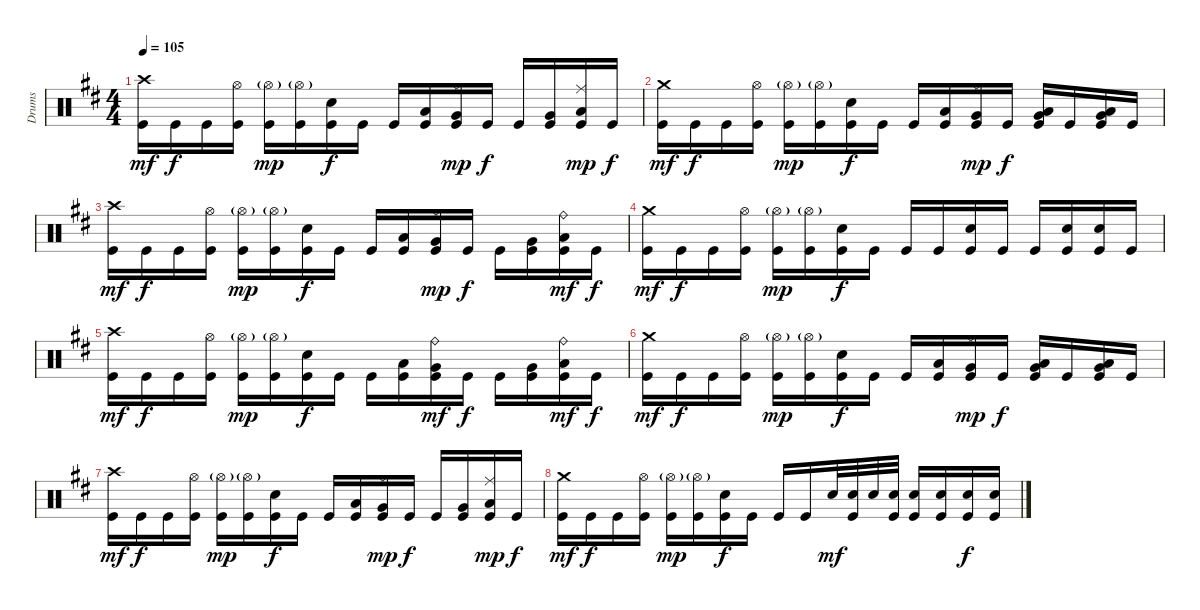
\track ("Drums" "Drums") {instrument percussion}
\staff {score}
\articulation defaults
\ts (4 4)
\tempo 105
\clef neutral
\ks d
("Crash high (hit)" "Kick (hit)").16{dy mf} "Kick (hit)".16{dy f} "Kick (hit)".16 ("Hi-Hat (open)" "Kick (hit)").16 ("Hi-Hat (open)"{g} "Kick (hit)").16{dy mp} ("Hi-Hat (open)"{g} "Kick (hit)").16 ("Electric Snare (hit)" "Kick (hit)").16{dy f} "Kick (hit)".16 "Kick (hit)".16 ("Low Tom (hit)" "Kick (hit)").16 ("Ride (middle)" "Very Low Tom (hit)" "Kick (hit)").16{dy mp} "Kick (hit)".16{dy f} "Kick (hit)".16 ("Very Low Tom (hit)" "Kick (hit)").16 ("Ride (middle)" "Low Floor Tom (hit)" "Kick (hit)").16{dy mp} "Kick (hit)".16{dy f} |
("Crash medium (hit)" "Kick (hit)").16{dy mf} "Kick (hit)".16{dy f} "Kick (hit)".16 ("Hi-Hat (open)" "Kick (hit)").16 ("Hi-Hat (open)"{g} "Kick (hit)").16{dy mp} ("Hi-Hat (open)"{g} "Kick (hit)").16 ("Electric Snare (hit)" "Kick (hit)").16{dy f} "Kick (hit)".16 "Kick (hit)".16 ("Low Tom (hit)" "Kick (hit)").16 ("Ride (middle)" "Very Low Tom (hit)" "Kick (hit)").16{dy mp} "Kick (hit)".16{dy f} ("Very Low Tom (hit)" "Low Floor Tom (hit)" "Kick (hit)").16 "Kick (hit)".16 ("Very Low Tom (hit)" "Low Floor Tom (hit)" "Kick (hit)").16 "Kick (hit)".16 |
("Crash high (hit)" "Kick (hit)").16{dy mf} "Kick (hit)".16{dy f} "Kick (hit)".16 ("Hi-Hat (open)" "Kick (hit)").16 ("Hi-Hat (open)"{g} "Kick (hit)").16{dy mp} ("Hi-Hat (open)"{g} "Kick (hit)").16 ("Electric Snare (hit)" "Kick (hit)").16{dy f} "Kick (hit)".16 "Kick (hit)".16 ("Low Tom (hit)" "Kick (hit)").16 ("Ride (middle)" "Very Low Tom (hit)" "Kick (hit)").16{dy mp} "Kick (hit)".16{dy f} "Kick (hit)".16 ("Very Low Tom (hit)" "Kick (hit)").16 ("Ride (bell)" "Low Floor Tom (hit)" "Kick (hit)").16{dy mf} "Kick (hit)".16{dy f} |
("Crash medium (hit)" "Kick (hit)").16{dy mf} "Kick (hit)".16{dy f} "Kick (hit)".16 ("Hi-Hat (open)" "Kick (hit)").16 ("Hi-Hat (open)"{g} "Kick (hit)").16{dy mp} ("Hi-Hat (open)"{g} "Kick (hit)").16 ("Electric Snare (hit)" "Kick (hit)").16{dy f} "Kick (hit)".16 "Kick (hit)".16 "Kick (hit)".16 ("Electric Snare (hit)" "Kick (hit)").16 "Kick (hit)".16 "Kick (hit)".16 ("Electric Snare (hit)" "Kick (hit)").16 ("Electric Snare (hit)" "Kick (hit)").16 "Kick (hit)".16 |
("Crash high (hit)" "Kick (hit)").16{dy mf} "Kick (hit)".16{dy f} "Kick (hit)".16 ("Hi-Hat (open)" "Kick (hit)").16 ("Hi-Hat (open)"{g} "Kick (hit)").16{dy mp} ("Hi-Hat (open)"{g} "Kick (hit)").16 ("Electric Snare (hit)" "Kick (hit)").16{dy f} "Kick (hit)".16 "Kick (hit)".16 ("Low Tom (hit)" "Kick (hit)").16 ("Ride (bell)" "Very Low Tom (hit)" "Kick (hit)").16{dy mf} "Kick (hit)".16{dy f} "Kick (hit)".16 ("Very Low Tom (hit)" "Kick (hit)").16 ("Ride (bell)" "Low Floor Tom (hit)" "Kick (hit)").16{dy mf} "Kick (hit)".16{dy f} |
("Crash medium (hit)" "Kick (hit)").16{dy mf} "Kick (hit)".16{dy f} "Kick (hit)".16 ("Hi-Hat (open)" "Kick (hit)").16 ("Hi-Hat (open)"{g} "Kick (hit)").16{dy mp} ("Hi-Hat (open)"{g} "Kick (hit)").16 ("Electric Snare (hit)" "Kick (hit)").16{dy f} "Kick (hit)".16 "Kick (hit)".16 ("Low Tom (hit)" "Kick (hit)").16 ("Ride (middle)" "Very Low Tom (hit)" "Kick (hit)").16{dy mp} "Kick (hit)".16{dy f} ("Very Low Tom (hit)" "Low Floor Tom (hit)" "Kick (hit)").16 "Kick (hit)".16 ("Very Low Tom (hit)" "Low Floor Tom (hit)" "Kick (hit)").16 "Kick (hit)".16 |
("Crash high (hit)" "Kick (hit)").16{dy mf} "Kick (hit)".16{dy f} "Kick (hit)".16 ("Hi-Hat (open)" "Kick (hit)").16 ("Hi-Hat (open)"{g} "Kick (hit)").16{dy mp} ("Hi-Hat (open)"{g} "Kick (hit)").16 ("Electric Snare (hit)" "Kick (hit)").16{dy f} "Kick (hit)".16 "Kick (hit)".16 ("Low Tom (hit)" "Kick (hit)").16 ("Ride (middle)" "Very Low Tom (hit)" "Kick (hit)").16{dy mp} "Kick (hit)".16{dy f} "Kick (hit)".16 ("Very Low Tom (hit)" "Kick (hit)").16 ("Ride (middle)" "Low Floor Tom (hit)" "Kick (hit)").16{dy mp} "Kick (hit)".16{dy f} |
("Crash medium (hit)" "Kick (hit)").16{dy mf} "Kick (hit)".16{dy f} "Kick (hit)".16 ("Hi-Hat (open)" "Kick (hit)").16 ("Hi-Hat (open)"{g} "Kick (hit)").16{dy mp} ("Hi-Hat (open)"{g} "Kick (hit)").16 ("Electric Snare (hit)" "Kick (hit)").16{dy f} "Kick (hit)".16 "Kick (hit)".16 "Kick (hit)".16 "Electric Snare (hit)".32{dy mf} ("Electric Snare (hit)" "Kick (hit)").32 "Electric Snare (hit)".32 ("Electric Snare (hit)" "Kick (hit)").32 ("Electric Snare (hit)" "Kick (hit)").16 ("Electric Snare (hit)" "Kick (hit)").16 ("Electric Snare (hit)" "Kick (hit)").16{dy f} ("Electric Snare (hit)" "Kick (hit)").16
